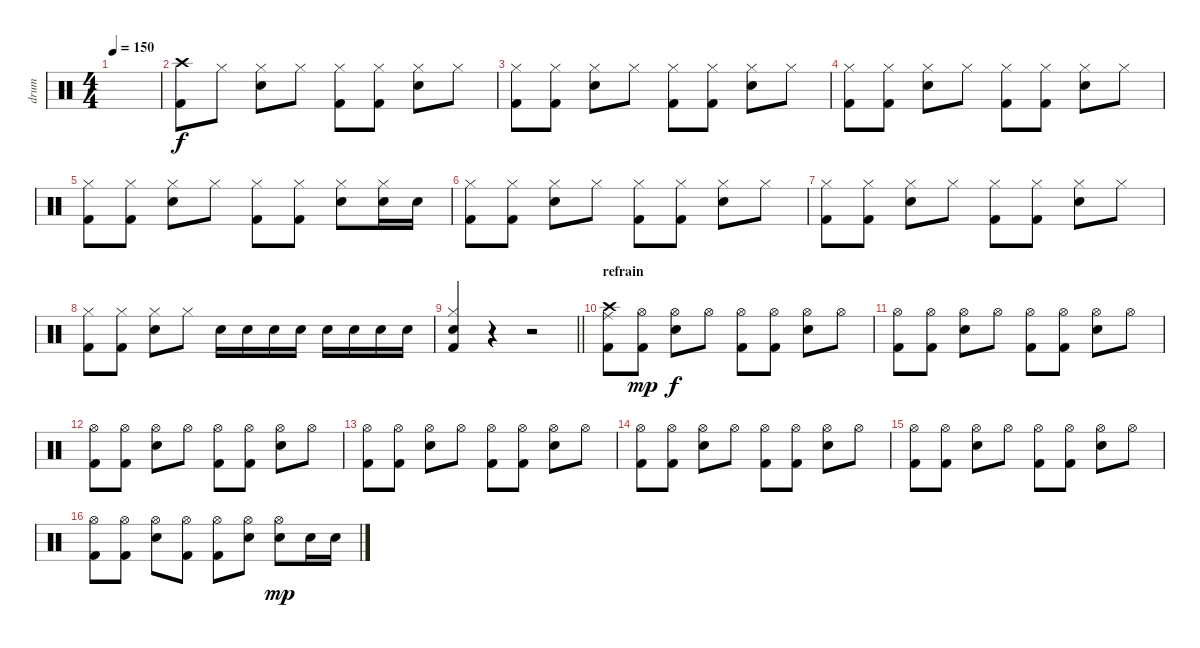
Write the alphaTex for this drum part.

\track ("drum" "drum") {instrument percussion}
\staff {score}
\articulation defaults
\ts (4 4)
\tempo 150
\clef neutral
\ks c
|
("Crash high (hit)" "Kick (hit) 2").8 "Hi-Hat (closed)".8 ("Hi-Hat (closed)" "Snare (hit) 2").8 "Hi-Hat (closed)".8 ("Hi-Hat (closed)" "Kick (hit) 2").8 ("Hi-Hat (closed)" "Kick (hit) 2").8 ("Hi-Hat (closed)" "Snare (hit) 2").8 "Hi-Hat (closed)".8 |
("Hi-Hat (closed)" "Kick (hit) 2").8 ("Hi-Hat (closed)" "Kick (hit) 2").8 ("Hi-Hat (closed)" "Snare (hit) 2").8 "Hi-Hat (closed)".8 ("Hi-Hat (closed)" "Kick (hit) 2").8 ("Hi-Hat (closed)" "Kick (hit) 2").8 ("Hi-Hat (closed)" "Snare (hit) 2").8 "Hi-Hat (closed)".8 |
("Hi-Hat (closed)" "Kick (hit) 2").8 ("Hi-Hat (closed)" "Kick (hit) 2").8 ("Hi-Hat (closed)" "Snare (hit) 2").8 "Hi-Hat (closed)".8 ("Hi-Hat (closed)" "Kick (hit) 2").8 ("Hi-Hat (closed)" "Kick (hit) 2").8 ("Hi-Hat (closed)" "Snare (hit) 2").8 "Hi-Hat (closed)".8 |
("Hi-Hat (closed)" "Kick (hit) 2").8 ("Hi-Hat (closed)" "Kick (hit) 2").8 ("Hi-Hat (closed)" "Snare (hit) 2").8 "Hi-Hat (closed)".8 ("Hi-Hat (closed)" "Kick (hit) 2").8 ("Hi-Hat (closed)" "Kick (hit) 2").8 ("Hi-Hat (closed)" "Snare (hit) 2").8 ("Hi-Hat (closed)" "Snare (hit) 2").16 "Snare (hit) 2".16 |
("Hi-Hat (closed)" "Kick (hit) 2").8 ("Hi-Hat (closed)" "Kick (hit) 2").8 ("Hi-Hat (closed)" "Snare (hit) 2").8 "Hi-Hat (closed)".8 ("Hi-Hat (closed)" "Kick (hit) 2").8 ("Hi-Hat (closed)" "Kick (hit) 2").8 ("Hi-Hat (closed)" "Snare (hit) 2").8 "Hi-Hat (closed)".8 |
("Hi-Hat (closed)" "Kick (hit) 2").8 ("Hi-Hat (closed)" "Kick (hit) 2").8 ("Hi-Hat (closed)" "Snare (hit) 2").8 "Hi-Hat (closed)".8 ("Hi-Hat (closed)" "Kick (hit) 2").8 ("Hi-Hat (closed)" "Kick (hit) 2").8 ("Hi-Hat (closed)" "Snare (hit) 2").8 "Hi-Hat (closed)".8 |
("Hi-Hat (closed)" "Kick (hit) 2").8 ("Hi-Hat (closed)" "Kick (hit) 2").8 ("Hi-Hat (closed)" "Snare (hit) 2").8 "Hi-Hat (closed)".8 "Snare (hit) 2".16 "Snare (hit) 2".16 "Snare (hit) 2".16 "Snare (hit) 2".16 "Snare (hit) 2".16 "Snare (hit) 2".16 "Snare (hit) 2".16 "Snare (hit) 2".16 |
\barLineRight lightlight
("Hi-Hat (closed)" "Snare (hit) 2" "Kick (hit) 2").4 r.4 r.2 |
\section ("" "refrain")
("Ride (middle)" "Crash high (hit)" "Kick (hit) 2").8 ("Hi-Hat (open)" "Kick (hit) 2").8{dy mp} ("Hi-Hat (open)" "Snare (hit) 2").8{dy f} "Hi-Hat (open)".8 ("Hi-Hat (open)" "Kick (hit) 2").8 ("Hi-Hat (open)" "Kick (hit) 2").8 ("Hi-Hat (open)" "Snare (hit) 2").8 "Hi-Hat (open)".8 |
("Hi-Hat (open)" "Kick (hit) 2").8 ("Hi-Hat (open)" "Kick (hit) 2").8 ("Hi-Hat (open)" "Snare (hit) 2").8 "Hi-Hat (open)".8 ("Hi-Hat (open)" "Kick (hit) 2").8 ("Hi-Hat (open)" "Kick (hit) 2").8 ("Hi-Hat (open)" "Snare (hit) 2").8 "Hi-Hat (open)".8 |
("Hi-Hat (open)" "Kick (hit) 2").8 ("Hi-Hat (open)" "Kick (hit) 2").8 ("Hi-Hat (open)" "Snare (hit) 2").8 "Hi-Hat (open)".8 ("Hi-Hat (open)" "Kick (hit) 2").8 ("Hi-Hat (open)" "Kick (hit) 2").8 ("Hi-Hat (open)" "Snare (hit) 2").8 "Hi-Hat (open)".8 |
("Hi-Hat (open)" "Kick (hit) 2").8 ("Hi-Hat (open)" "Kick (hit) 2").8 ("Hi-Hat (open)" "Snare (hit) 2").8 "Hi-Hat (open)".8 ("Hi-Hat (open)" "Kick (hit) 2").8 ("Hi-Hat (open)" "Kick (hit) 2").8 ("Hi-Hat (open)" "Snare (hit) 2").8 "Hi-Hat (open)".8 |
("Hi-Hat (open)" "Kick (hit) 2").8 ("Hi-Hat (open)" "Kick (hit) 2").8 ("Hi-Hat (open)" "Snare (hit) 2").8 "Hi-Hat (open)".8 ("Hi-Hat (open)" "Kick (hit) 2").8 ("Hi-Hat (open)" "Kick (hit) 2").8 ("Hi-Hat (open)" "Snare (hit) 2").8 "Hi-Hat (open)".8 |
("Hi-Hat (open)" "Kick (hit) 2").8 ("Hi-Hat (open)" "Kick (hit) 2").8 ("Hi-Hat (open)" "Snare (hit) 2").8 "Hi-Hat (open)".8 ("Hi-Hat (open)" "Kick (hit) 2").8 ("Hi-Hat (open)" "Kick (hit) 2").8 ("Hi-Hat (open)" "Snare (hit) 2").8 "Hi-Hat (open)".8 |
("Hi-Hat (open)" "Kick (hit) 2").8 ("Hi-Hat (open)" "Kick (hit) 2").8 ("Hi-Hat (open)" "Snare (hit) 2").8 ("Hi-Hat (open)" "Kick (hit) 2").8 ("Hi-Hat (open)" "Kick (hit) 2").8 ("Hi-Hat (open)" "Snare (hit) 2").8 ("Hi-Hat (open)" "Snare (hit) 2").8{dy mp} "Snare (hit) 2".16 "Snare (hit) 2".16
